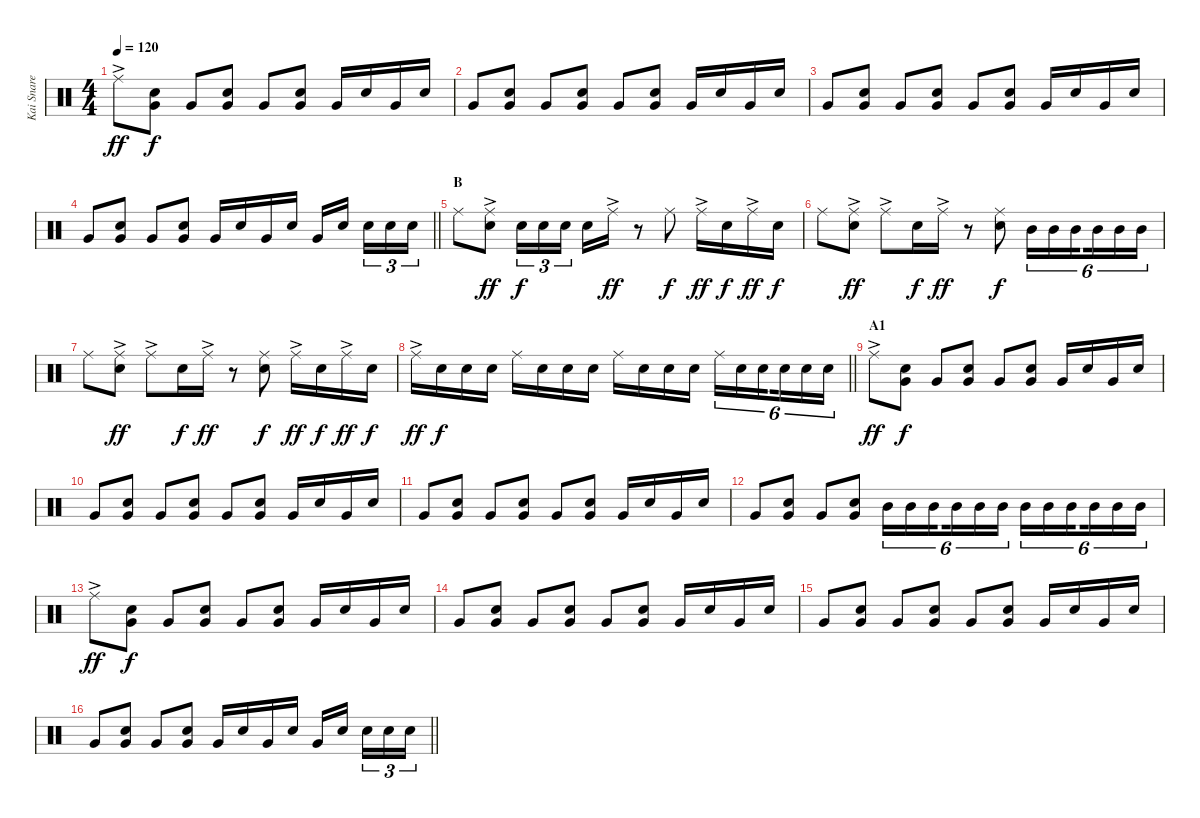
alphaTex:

\track ("Kai Snare" "Kai Snare") {instrument percussion}
\staff {score}
\articulation defaults
\ts (4 4)
\tempo 120
\clef neutral
\ks c "Ride (middle)"{ac}.8{dy ff}
("Very Low Tom (hit)" "Snare (hit) 2").8{dy f} "Very Low Tom (hit)".8 ("Very Low Tom (hit)" "Snare (hit) 2").8 "Very Low Tom (hit)".8 ("Very Low Tom (hit)" "Snare (hit) 2").8 "Very Low Tom (hit)".16 "Snare (hit) 2".16 "Very Low Tom (hit)".16 "Snare (hit) 2".16 |
"Very Low Tom (hit)".8 ("Very Low Tom (hit)" "Snare (hit) 2").8 "Very Low Tom (hit)".8 ("Very Low Tom (hit)" "Snare (hit) 2").8 "Very Low Tom (hit)".8 ("Very Low Tom (hit)" "Snare (hit) 2").8 "Very Low Tom (hit)".16 "Snare (hit) 2".16 "Very Low Tom (hit)".16 "Snare (hit) 2".16 |
"Very Low Tom (hit)".8 ("Very Low Tom (hit)" "Snare (hit) 2").8 "Very Low Tom (hit)".8 ("Very Low Tom (hit)" "Snare (hit) 2").8 "Very Low Tom (hit)".8 ("Very Low Tom (hit)" "Snare (hit) 2").8 "Very Low Tom (hit)".16 "Snare (hit) 2".16 "Very Low Tom (hit)".16 "Snare (hit) 2".16 |
\barLineRight lightlight "Very Low Tom (hit)".8
("Very Low Tom (hit)" "Snare (hit) 2").8 "Very Low Tom (hit)".8 ("Very Low Tom (hit)" "Snare (hit) 2").8 "Very Low Tom (hit)".16 "Snare (hit) 2".16 "Very Low Tom (hit)".16 "Snare (hit) 2".16 "Very Low Tom (hit)".16 "Snare (hit) 2".16{beam splitsecondary} "Snare (hit) 2".16{tu (3 2)} "Snare (hit) 2".16{tu (3 2)} "Snare (hit) 2".16{tu (3 2)} |
\section ("" "B")
"Ride (middle)".8 ("Ride (middle)"{ac} "Snare (hit) 2").8{dy ff} "Snare (hit) 2".16{tu (3 2) dy f} "Snare (hit) 2".16{tu (3 2)} "Snare (hit) 2".16{tu (3 2) beam splitsecondary} "Snare (hit) 2".16 "Ride (middle)"{ac}.16{dy ff} r.8 "Ride (middle)".8{dy f} "Ride (middle)"{ac}.16{dy ff} "Snare (hit) 2".16{dy f} "Ride (middle)"{ac}.16{dy ff} "Snare (hit) 2".16{dy f} |
"Ride (middle)".8 ("Ride (middle)"{ac} "Snare (hit) 2").8{dy ff} "Ride (middle)"{ac}.8 "Snare (hit) 2".16{dy f} "Ride (middle)"{ac}.16{dy ff} r.8 ("Ride (middle)" "Snare (hit) 2").8{dy f} "Mid Tom (hit)".16{tu (6 4)} "Mid Tom (hit)".16{tu (6 4)} "Mid Tom (hit)".16{tu (6 4) beam splitsecondary} "Mid Tom (hit)".16{tu (6 4)} "Mid Tom (hit)".16{tu (6 4)} "Mid Tom (hit)".16{tu (6 4)} |
"Ride (middle)".8 ("Ride (middle)"{ac} "Snare (hit) 2").8{dy ff} "Ride (middle)"{ac}.8 "Snare (hit) 2".16{dy f} "Ride (middle)"{ac}.16{dy ff} r.8 ("Ride (middle)" "Snare (hit) 2").8{dy f} "Ride (middle)"{ac}.16{dy ff} "Snare (hit) 2".16{dy f} "Ride (middle)"{ac}.16{dy ff} "Snare (hit) 2".16{dy f} |
\barLineRight lightlight "Ride (middle)"{ac}.16{dy ff} "Snare (hit) 2".16{dy f} "Snare (hit) 2".16 "Snare (hit) 2".16 "Ride (middle)".16 "Snare (hit) 2".16 "Snare (hit) 2".16 "Snare (hit) 2".16 "Ride (middle)".16 "Snare (hit) 2".16 "Snare (hit) 2".16 "Snare (hit) 2".16 "Ride (middle)".16{tu (6 4)} "Snare (hit) 2".16{tu (6 4)} "Snare (hit) 2".16{tu (6 4) beam splitsecondary} "Snare (hit) 2".16{tu (6 4)} "Snare (hit) 2".16{tu (6 4)} "Snare (hit) 2".16{tu (6 4)}
|
\section ("" "A1")
"Ride (middle)"{ac}.8{dy ff} ("Very Low Tom (hit)" "Snare (hit) 2").8{dy f} "Very Low Tom (hit)".8 ("Very Low Tom (hit)" "Snare (hit) 2").8 "Very Low Tom (hit)".8 ("Very Low Tom (hit)" "Snare (hit) 2").8 "Very Low Tom (hit)".16 "Snare (hit) 2".16 "Very Low Tom (hit)".16 "Snare (hit) 2".16 |
"Very Low Tom (hit)".8 ("Very Low Tom (hit)" "Snare (hit) 2").8 "Very Low Tom (hit)".8 ("Very Low Tom (hit)" "Snare (hit) 2").8 "Very Low Tom (hit)".8 ("Very Low Tom (hit)" "Snare (hit) 2").8 "Very Low Tom (hit)".16 "Snare (hit) 2".16 "Very Low Tom (hit)".16 "Snare (hit) 2".16 |
"Very Low Tom (hit)".8 ("Very Low Tom (hit)" "Snare (hit) 2").8 "Very Low Tom (hit)".8 ("Very Low Tom (hit)" "Snare (hit) 2").8 "Very Low Tom (hit)".8 ("Very Low Tom (hit)" "Snare (hit) 2").8 "Very Low Tom (hit)".16 "Snare (hit) 2".16 "Very Low Tom (hit)".16 "Snare (hit) 2".16 |
"Very Low Tom (hit)".8 ("Very Low Tom (hit)" "Snare (hit) 2").8 "Very Low Tom (hit)".8 ("Very Low Tom (hit)" "Snare (hit) 2").8 "Mid Tom (hit)".16{tu (6 4)} "Mid Tom (hit)".16{tu (6 4)} "Mid Tom (hit)".16{tu (6 4) beam splitsecondary} "Mid Tom (hit)".16{tu (6 4)} "Mid Tom (hit)".16{tu (6 4)} "Mid Tom (hit)".16{tu (6 4)} "Mid Tom (hit)".16{tu (6 4)} "Mid Tom (hit)".16{tu (6 4)} "Mid Tom (hit)".16{tu (6 4) beam splitsecondary} "Mid Tom (hit)".16{tu (6 4)} "Mid Tom (hit)".16{tu (6 4)} "Mid Tom (hit)".16{tu (6 4)} |
"Ride (middle)"{ac}.8{dy ff} ("Very Low Tom (hit)" "Snare (hit) 2").8{dy f} "Very Low Tom (hit)".8 ("Very Low Tom (hit)" "Snare (hit) 2").8 "Very Low Tom (hit)".8 ("Very Low Tom (hit)" "Snare (hit) 2").8 "Very Low Tom (hit)".16 "Snare (hit) 2".16 "Very Low Tom (hit)".16 "Snare (hit) 2".16 |
"Very Low Tom (hit)".8 ("Very Low Tom (hit)" "Snare (hit) 2").8 "Very Low Tom (hit)".8 ("Very Low Tom (hit)" "Snare (hit) 2").8 "Very Low Tom (hit)".8 ("Very Low Tom (hit)" "Snare (hit) 2").8 "Very Low Tom (hit)".16 "Snare (hit) 2".16 "Very Low Tom (hit)".16 "Snare (hit) 2".16 |
"Very Low Tom (hit)".8 ("Very Low Tom (hit)" "Snare (hit) 2").8 "Very Low Tom (hit)".8 ("Very Low Tom (hit)" "Snare (hit) 2").8 "Very Low Tom (hit)".8 ("Very Low Tom (hit)" "Snare (hit) 2").8 "Very Low Tom (hit)".16 "Snare (hit) 2".16 "Very Low Tom (hit)".16 "Snare (hit) 2".16 |
\barLineRight lightlight "Very Low Tom (hit)".8
("Very Low Tom (hit)" "Snare (hit) 2").8 "Very Low Tom (hit)".8 ("Very Low Tom (hit)" "Snare (hit) 2").8 "Very Low Tom (hit)".16 "Snare (hit) 2".16 "Very Low Tom (hit)".16 "Snare (hit) 2".16 "Very Low Tom (hit)".16 "Snare (hit) 2".16{beam splitsecondary} "Snare (hit) 2".16{tu (3 2)} "Snare (hit) 2".16{tu (3 2)} "Snare (hit) 2".16{tu (3 2)}
